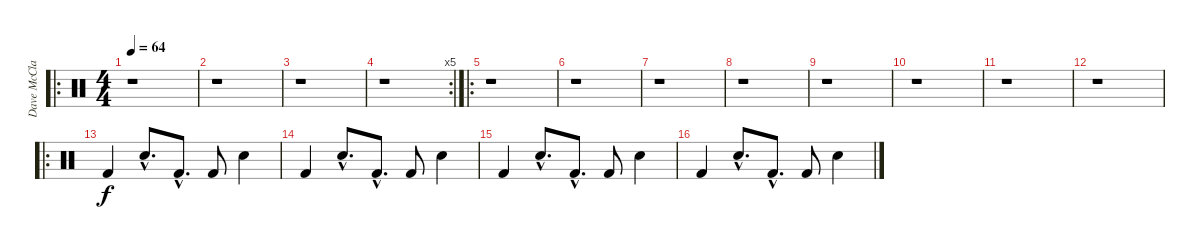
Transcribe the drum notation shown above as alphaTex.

\track ("Dave McClain" "Dave McCla") {instrument percussion}
\staff {score}
\articulation defaults
\ro
\ts (4 4)
\tempo 64
\clef neutral
\ks c
r.1{dy f} |
r.1 |
r.1 |
\rc 5
r.1 |
\ro
r.1 |
r.1 |
r.1 |
r.1 |
r.1 |
r.1 |
r.1 |
r.1 |
\ro "Kick (hit) 2".4 "Electric Snare (hit)"{hac}.8{d} "Kick (hit) 2"{hac}.8{d} "Kick (hit) 2".8 "Electric Snare (hit)".4
|
"Kick (hit) 2".4 "Electric Snare (hit)"{hac}.8{d} "Kick (hit) 2"{hac}.8{d} "Kick (hit) 2".8 "Electric Snare (hit)".4 |
"Kick (hit) 2".4 "Electric Snare (hit)"{hac}.8{d} "Kick (hit) 2"{hac}.8{d} "Kick (hit) 2".8 "Electric Snare (hit)".4 |
"Kick (hit) 2".4 "Electric Snare (hit)"{hac}.8{d} "Kick (hit) 2"{hac}.8{d} "Kick (hit) 2".8 "Electric Snare (hit)".4
